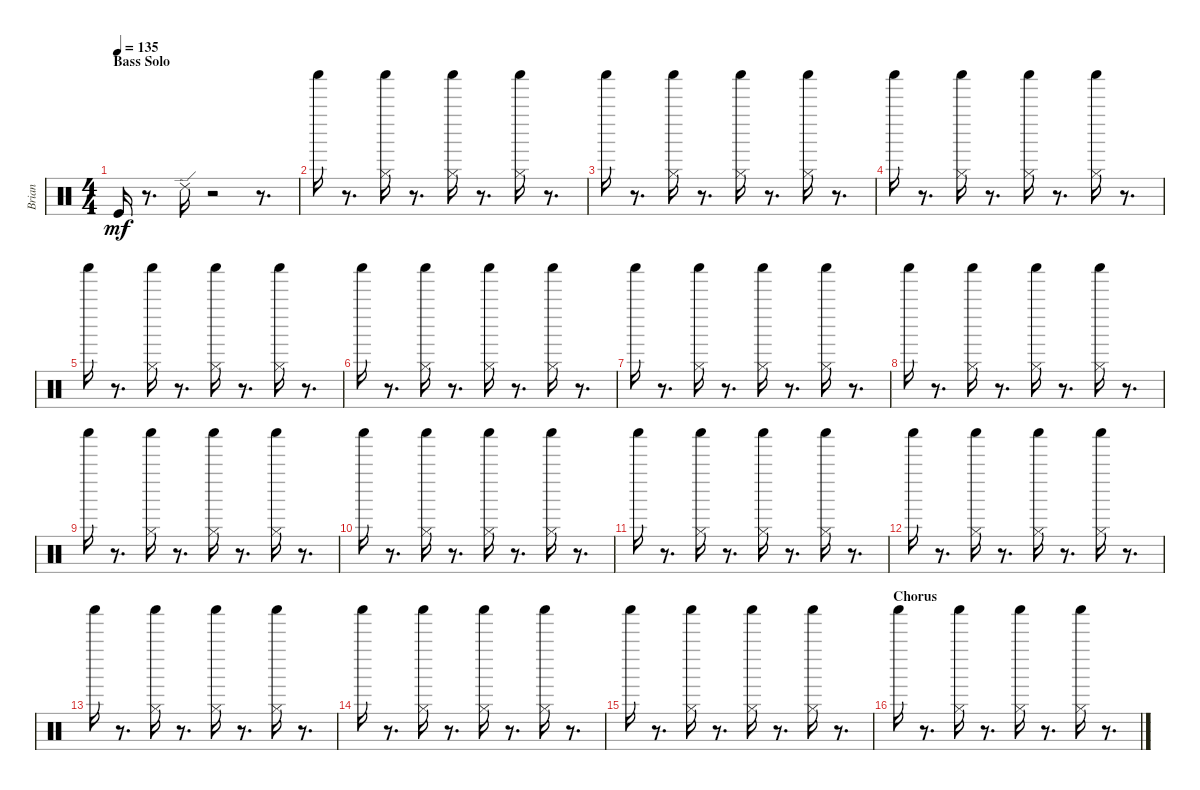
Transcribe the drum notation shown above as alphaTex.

\track ("Brian" "Brian") {instrument percussion}
\staff {score}
\articulation defaults
\ts (4 4)
\section ("" "Bass Solo")
\tempo 135
\clef neutral
\ks c "Kick (hit)".16{dy mf}
r.8{d} "Ride (edge) 2".16 r.2 r.8{d} |
"Shaker (hit)".16 r.8{d} ("Shaker (hit)" "Hi-Hat (closed)").16 r.8{d} ("Shaker (hit)" "Hi-Hat (closed)").16 r.8{d} ("Shaker (hit)" "Hi-Hat (closed)").16 r.8{d} |
"Shaker (hit)".16 r.8{d} ("Shaker (hit)" "Hi-Hat (closed)").16 r.8{d} ("Shaker (hit)" "Hi-Hat (closed)").16 r.8{d} ("Shaker (hit)" "Hi-Hat (closed)").16 r.8{d} |
"Shaker (hit)".16 r.8{d} ("Shaker (hit)" "Hi-Hat (closed)").16 r.8{d} ("Shaker (hit)" "Hi-Hat (closed)").16 r.8{d} ("Shaker (hit)" "Hi-Hat (closed)").16 r.8{d} |
"Shaker (hit)".16 r.8{d} ("Shaker (hit)" "Hi-Hat (closed)").16 r.8{d} ("Shaker (hit)" "Hi-Hat (closed)").16 r.8{d} ("Shaker (hit)" "Hi-Hat (closed)").16 r.8{d} |
"Shaker (hit)".16 r.8{d} ("Shaker (hit)" "Hi-Hat (closed)").16 r.8{d} ("Shaker (hit)" "Hi-Hat (closed)").16 r.8{d} ("Shaker (hit)" "Hi-Hat (closed)").16 r.8{d} |
"Shaker (hit)".16 r.8{d} ("Shaker (hit)" "Hi-Hat (closed)").16 r.8{d} ("Shaker (hit)" "Hi-Hat (closed)").16 r.8{d} ("Shaker (hit)" "Hi-Hat (closed)").16 r.8{d} |
"Shaker (hit)".16 r.8{d} ("Shaker (hit)" "Hi-Hat (closed)").16 r.8{d} ("Shaker (hit)" "Hi-Hat (closed)").16 r.8{d} ("Shaker (hit)" "Hi-Hat (closed)").16 r.8{d} |
"Shaker (hit)".16 r.8{d} ("Shaker (hit)" "Hi-Hat (closed)").16 r.8{d} ("Shaker (hit)" "Hi-Hat (closed)").16 r.8{d} ("Shaker (hit)" "Hi-Hat (closed)").16 r.8{d} |
"Shaker (hit)".16 r.8{d} ("Shaker (hit)" "Hi-Hat (closed)").16 r.8{d} ("Shaker (hit)" "Hi-Hat (closed)").16 r.8{d} ("Shaker (hit)" "Hi-Hat (closed)").16 r.8{d} |
"Shaker (hit)".16 r.8{d} ("Shaker (hit)" "Hi-Hat (closed)").16 r.8{d} ("Shaker (hit)" "Hi-Hat (closed)").16 r.8{d} ("Shaker (hit)" "Hi-Hat (closed)").16 r.8{d} |
"Shaker (hit)".16 r.8{d} ("Shaker (hit)" "Hi-Hat (closed)").16 r.8{d} ("Shaker (hit)" "Hi-Hat (closed)").16 r.8{d} ("Shaker (hit)" "Hi-Hat (closed)").16 r.8{d} |
"Shaker (hit)".16 r.8{d} ("Shaker (hit)" "Hi-Hat (closed)").16 r.8{d} ("Shaker (hit)" "Hi-Hat (closed)").16 r.8{d} ("Shaker (hit)" "Hi-Hat (closed)").16 r.8{d} |
"Shaker (hit)".16 r.8{d} ("Shaker (hit)" "Hi-Hat (closed)").16 r.8{d} ("Shaker (hit)" "Hi-Hat (closed)").16 r.8{d} ("Shaker (hit)" "Hi-Hat (closed)").16 r.8{d} |
"Shaker (hit)".16 r.8{d} ("Shaker (hit)" "Hi-Hat (closed)").16 r.8{d} ("Shaker (hit)" "Hi-Hat (closed)").16 r.8{d} ("Shaker (hit)" "Hi-Hat (closed)").16 r.8{d} |
\section ("" "Chorus")
"Shaker (hit)".16 r.8{d} ("Shaker (hit)" "Hi-Hat (closed)").16 r.8{d} ("Shaker (hit)" "Hi-Hat (closed)").16 r.8{d} ("Shaker (hit)" "Hi-Hat (closed)").16 r.8{d}
